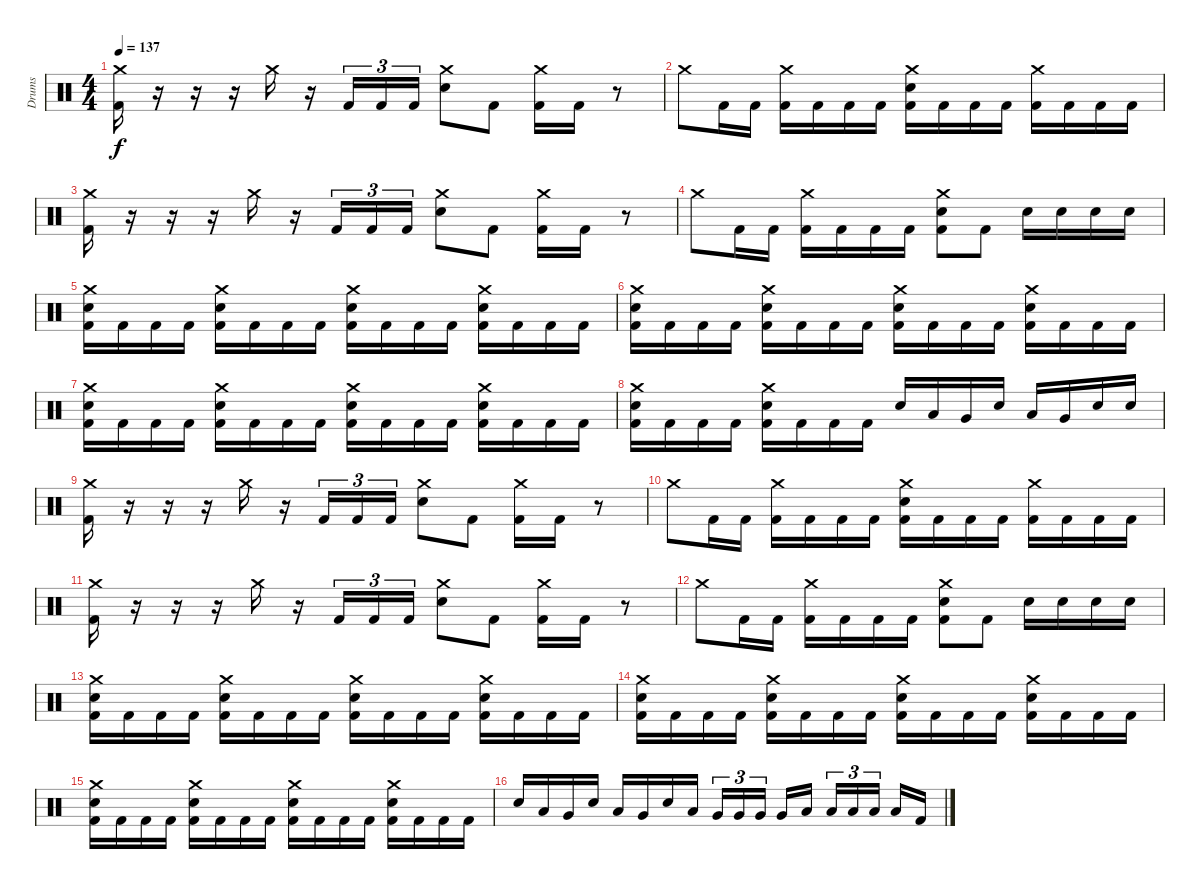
\track ("Drums" "Drums") {instrument percussion}
\staff {score}
\articulation defaults
\ts (4 4)
\tempo 137
\clef neutral
\ks c
("Crash medium (hit)" "Kick (hit) 2").16{dy f} r.16 r.16 r.16 "Crash medium (hit)".16 r.16 "Kick (hit) 2".16{tu (3 2)} "Kick (hit) 2".16{tu (3 2)} "Kick (hit) 2".16{tu (3 2)} ("Crash medium (hit)" "Electric Snare (hit)").8 "Kick (hit) 2".8 ("Crash medium (hit)" "Kick (hit) 2").16 "Kick (hit) 2".16 r.8 |
"Crash medium (hit)".8 "Kick (hit) 2".16 "Kick (hit) 2".16 ("Crash medium (hit)" "Kick (hit) 2").16 "Kick (hit) 2".16 "Kick (hit) 2".16 "Kick (hit) 2".16 ("Crash medium (hit)" "Electric Snare (hit)" "Kick (hit) 2").16 "Kick (hit) 2".16 "Kick (hit) 2".16 "Kick (hit) 2".16 ("Crash medium (hit)" "Kick (hit) 2").16 "Kick (hit) 2".16 "Kick (hit) 2".16 "Kick (hit) 2".16 |
("Crash medium (hit)" "Kick (hit) 2").16 r.16 r.16 r.16 "Crash medium (hit)".16 r.16 "Kick (hit) 2".16{tu (3 2)} "Kick (hit) 2".16{tu (3 2)} "Kick (hit) 2".16{tu (3 2)} ("Crash medium (hit)" "Electric Snare (hit)").8 "Kick (hit) 2".8 ("Crash medium (hit)" "Kick (hit) 2").16 "Kick (hit) 2".16 r.8 |
"Crash medium (hit)".8 "Kick (hit) 2".16 "Kick (hit) 2".16 ("Crash medium (hit)" "Kick (hit) 2").16 "Kick (hit) 2".16 "Kick (hit) 2".16 "Kick (hit) 2".16 ("Crash medium (hit)" "Electric Snare (hit)" "Kick (hit) 2").8 "Kick (hit) 2".8 "Electric Snare (hit)".16 "Electric Snare (hit)".16 "Electric Snare (hit)".16 "Electric Snare (hit)".16 |
("Crash medium (hit)" "Electric Snare (hit)" "Kick (hit) 2").16 "Kick (hit) 2".16 "Kick (hit) 2".16 "Kick (hit) 2".16 ("Crash medium (hit)" "Electric Snare (hit)" "Kick (hit) 2").16 "Kick (hit) 2".16 "Kick (hit) 2".16 "Kick (hit) 2".16 ("Crash medium (hit)" "Electric Snare (hit)" "Kick (hit) 2").16 "Kick (hit) 2".16 "Kick (hit) 2".16 "Kick (hit) 2".16 ("Crash medium (hit)" "Electric Snare (hit)" "Kick (hit) 2").16 "Kick (hit) 2".16 "Kick (hit) 2".16 "Kick (hit) 2".16 |
("Crash medium (hit)" "Electric Snare (hit)" "Kick (hit) 2").16 "Kick (hit) 2".16 "Kick (hit) 2".16 "Kick (hit) 2".16 ("Crash medium (hit)" "Electric Snare (hit)" "Kick (hit) 2").16 "Kick (hit) 2".16 "Kick (hit) 2".16 "Kick (hit) 2".16 ("Crash medium (hit)" "Electric Snare (hit)" "Kick (hit) 2").16 "Kick (hit) 2".16 "Kick (hit) 2".16 "Kick (hit) 2".16 ("Crash medium (hit)" "Electric Snare (hit)" "Kick (hit) 2").16 "Kick (hit) 2".16 "Kick (hit) 2".16 "Kick (hit) 2".16 |
("Crash medium (hit)" "Electric Snare (hit)" "Kick (hit) 2").16 "Kick (hit) 2".16 "Kick (hit) 2".16 "Kick (hit) 2".16 ("Crash medium (hit)" "Electric Snare (hit)" "Kick (hit) 2").16 "Kick (hit) 2".16 "Kick (hit) 2".16 "Kick (hit) 2".16 ("Crash medium (hit)" "Electric Snare (hit)" "Kick (hit) 2").16 "Kick (hit) 2".16 "Kick (hit) 2".16 "Kick (hit) 2".16 ("Crash medium (hit)" "Electric Snare (hit)" "Kick (hit) 2").16 "Kick (hit) 2".16 "Kick (hit) 2".16 "Kick (hit) 2".16 |
("Crash medium (hit)" "Electric Snare (hit)" "Kick (hit) 2").16 "Kick (hit) 2".16 "Kick (hit) 2".16 "Kick (hit) 2".16 ("Crash medium (hit)" "Electric Snare (hit)" "Kick (hit) 2").16 "Kick (hit) 2".16 "Kick (hit) 2".16 "Kick (hit) 2".16 "Electric Snare (hit)".16 "Low Tom (hit)".16 "Very Low Tom (hit)".16 "Electric Snare (hit)".16 "Low Tom (hit)".16 "Very Low Tom (hit)".16 "Electric Snare (hit)".16 "Electric Snare (hit)".16 |
("Crash medium (hit)" "Kick (hit) 2").16 r.16 r.16 r.16 "Crash medium (hit)".16 r.16 "Kick (hit) 2".16{tu (3 2)} "Kick (hit) 2".16{tu (3 2)} "Kick (hit) 2".16{tu (3 2)} ("Crash medium (hit)" "Electric Snare (hit)").8 "Kick (hit) 2".8 ("Crash medium (hit)" "Kick (hit) 2").16 "Kick (hit) 2".16 r.8 |
"Crash medium (hit)".8 "Kick (hit) 2".16 "Kick (hit) 2".16 ("Crash medium (hit)" "Kick (hit) 2").16 "Kick (hit) 2".16 "Kick (hit) 2".16 "Kick (hit) 2".16 ("Crash medium (hit)" "Electric Snare (hit)" "Kick (hit) 2").16 "Kick (hit) 2".16 "Kick (hit) 2".16 "Kick (hit) 2".16 ("Crash medium (hit)" "Kick (hit) 2").16 "Kick (hit) 2".16 "Kick (hit) 2".16 "Kick (hit) 2".16 |
("Crash medium (hit)" "Kick (hit) 2").16 r.16 r.16 r.16 "Crash medium (hit)".16 r.16 "Kick (hit) 2".16{tu (3 2)} "Kick (hit) 2".16{tu (3 2)} "Kick (hit) 2".16{tu (3 2)} ("Crash medium (hit)" "Electric Snare (hit)").8 "Kick (hit) 2".8 ("Crash medium (hit)" "Kick (hit) 2").16 "Kick (hit) 2".16 r.8 |
"Crash medium (hit)".8 "Kick (hit) 2".16 "Kick (hit) 2".16 ("Crash medium (hit)" "Kick (hit) 2").16 "Kick (hit) 2".16 "Kick (hit) 2".16 "Kick (hit) 2".16 ("Crash medium (hit)" "Electric Snare (hit)" "Kick (hit) 2").8 "Kick (hit) 2".8 "Electric Snare (hit)".16 "Electric Snare (hit)".16 "Electric Snare (hit)".16 "Electric Snare (hit)".16 |
("Crash medium (hit)" "Electric Snare (hit)" "Kick (hit) 2").16 "Kick (hit) 2".16 "Kick (hit) 2".16 "Kick (hit) 2".16 ("Crash medium (hit)" "Electric Snare (hit)" "Kick (hit) 2").16 "Kick (hit) 2".16 "Kick (hit) 2".16 "Kick (hit) 2".16 ("Crash medium (hit)" "Electric Snare (hit)" "Kick (hit) 2").16 "Kick (hit) 2".16 "Kick (hit) 2".16 "Kick (hit) 2".16 ("Crash medium (hit)" "Electric Snare (hit)" "Kick (hit) 2").16 "Kick (hit) 2".16 "Kick (hit) 2".16 "Kick (hit) 2".16 |
("Crash medium (hit)" "Electric Snare (hit)" "Kick (hit) 2").16 "Kick (hit) 2".16 "Kick (hit) 2".16 "Kick (hit) 2".16 ("Crash medium (hit)" "Electric Snare (hit)" "Kick (hit) 2").16 "Kick (hit) 2".16 "Kick (hit) 2".16 "Kick (hit) 2".16 ("Crash medium (hit)" "Electric Snare (hit)" "Kick (hit) 2").16 "Kick (hit) 2".16 "Kick (hit) 2".16 "Kick (hit) 2".16 ("Crash medium (hit)" "Electric Snare (hit)" "Kick (hit) 2").16 "Kick (hit) 2".16 "Kick (hit) 2".16 "Kick (hit) 2".16 |
("Crash medium (hit)" "Electric Snare (hit)" "Kick (hit) 2").16 "Kick (hit) 2".16 "Kick (hit) 2".16 "Kick (hit) 2".16 ("Crash medium (hit)" "Electric Snare (hit)" "Kick (hit) 2").16 "Kick (hit) 2".16 "Kick (hit) 2".16 "Kick (hit) 2".16 ("Crash medium (hit)" "Electric Snare (hit)" "Kick (hit) 2").16 "Kick (hit) 2".16 "Kick (hit) 2".16 "Kick (hit) 2".16 ("Crash medium (hit)" "Electric Snare (hit)" "Kick (hit) 2").16 "Kick (hit) 2".16 "Kick (hit) 2".16 "Kick (hit) 2".16 |
"Electric Snare (hit)".16 "Low Tom (hit)".16 "Very Low Tom (hit)".16 "Electric Snare (hit)".16 "Low Tom (hit)".16 "Very Low Tom (hit)".16 "Electric Snare (hit)".16 "Low Tom (hit)".16 "Very Low Tom (hit)".16{tu (3 2)} "Very Low Tom (hit)".16{tu (3 2)} "Very Low Tom (hit)".16{tu (3 2)} "Very Low Tom (hit)".16 "Low Floor Tom (hit)".16 "Low Floor Tom (hit)".16{tu (3 2)} "Low Floor Tom (hit)".16{tu (3 2)} "Low Floor Tom (hit)".16{tu (3 2)} "Low Floor Tom (hit)".16 "Kick (hit) 2".16
